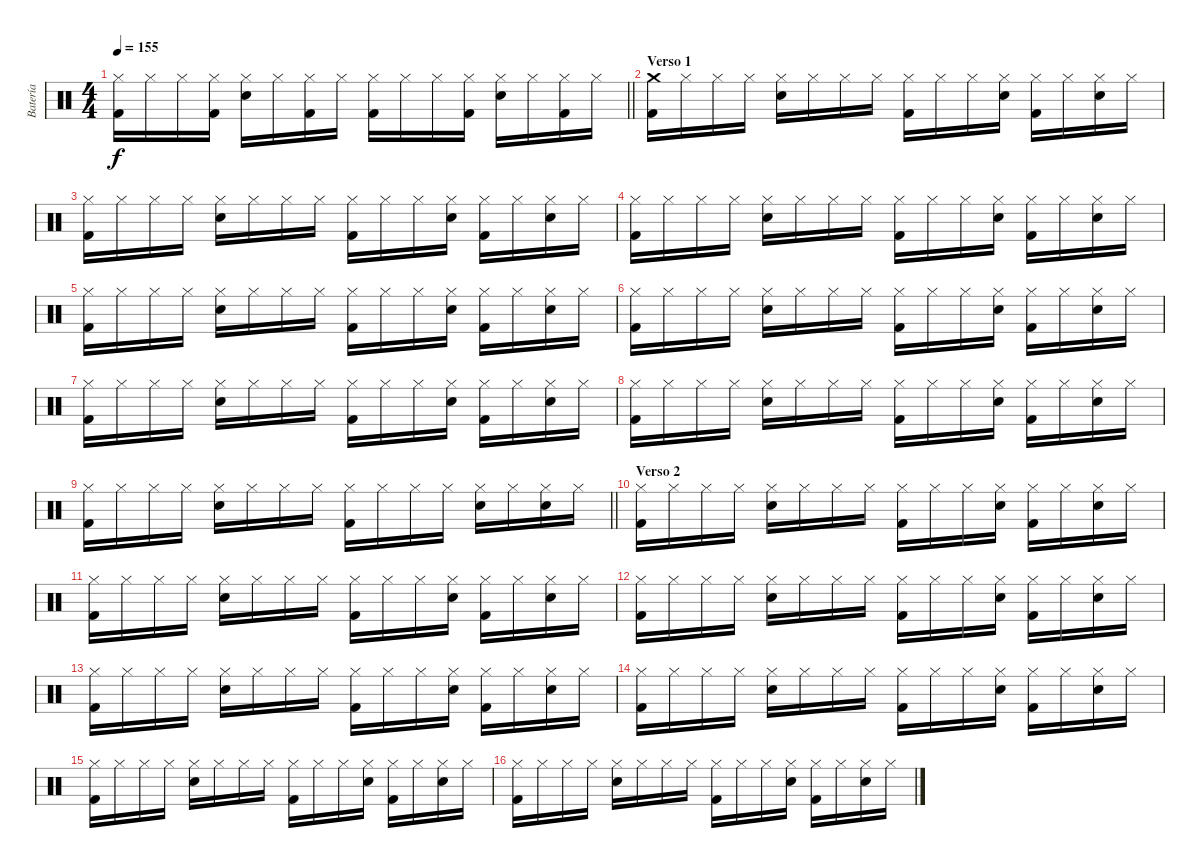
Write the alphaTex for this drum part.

\track ("Batería" "Batería") {instrument percussion}
\staff {score}
\articulation defaults
\ts (4 4)
\tempo 155
\clef neutral
\barLineRight lightlight
\ks c
("Hi-Hat (closed)" "Kick (hit) 2").16{dy f} "Hi-Hat (closed)".16 "Hi-Hat (closed)".16 ("Hi-Hat (closed)" "Kick (hit) 2").16 ("Hi-Hat (closed)" "Snare (hit) 2").16 "Hi-Hat (closed)".16 ("Hi-Hat (closed)" "Kick (hit) 2").16 "Hi-Hat (closed)".16 ("Hi-Hat (closed)" "Kick (hit) 2").16 "Hi-Hat (closed)".16 "Hi-Hat (closed)".16 ("Hi-Hat (closed)" "Kick (hit) 2").16 ("Hi-Hat (closed)" "Snare (hit) 2").16 "Hi-Hat (closed)".16 ("Hi-Hat (closed)" "Kick (hit) 2").16 "Hi-Hat (closed)".16 |
\section ("" "Verso 1")
("Crash medium (hit)" "Kick (hit) 2").16 "Hi-Hat (closed)".16 "Hi-Hat (closed)".16 "Hi-Hat (closed)".16 ("Hi-Hat (closed)" "Snare (hit) 2").16 "Hi-Hat (closed)".16 "Hi-Hat (closed)".16 "Hi-Hat (closed)".16 ("Hi-Hat (closed)" "Kick (hit) 2").16 "Hi-Hat (closed)".16 "Hi-Hat (closed)".16 ("Hi-Hat (closed)" "Snare (hit) 2").16 ("Hi-Hat (closed)" "Kick (hit) 2").16 "Hi-Hat (closed)".16 ("Hi-Hat (closed)" "Snare (hit) 2").16 "Hi-Hat (closed)".16 |
("Hi-Hat (closed)" "Kick (hit) 2").16 "Hi-Hat (closed)".16 "Hi-Hat (closed)".16 "Hi-Hat (closed)".16 ("Hi-Hat (closed)" "Snare (hit) 2").16 "Hi-Hat (closed)".16 "Hi-Hat (closed)".16 "Hi-Hat (closed)".16 ("Hi-Hat (closed)" "Kick (hit) 2").16 "Hi-Hat (closed)".16 "Hi-Hat (closed)".16 ("Hi-Hat (closed)" "Snare (hit) 2").16 ("Hi-Hat (closed)" "Kick (hit) 2").16 "Hi-Hat (closed)".16 ("Hi-Hat (closed)" "Snare (hit) 2").16 "Hi-Hat (closed)".16 |
("Hi-Hat (closed)" "Kick (hit) 2").16 "Hi-Hat (closed)".16 "Hi-Hat (closed)".16 "Hi-Hat (closed)".16 ("Hi-Hat (closed)" "Snare (hit) 2").16 "Hi-Hat (closed)".16 "Hi-Hat (closed)".16 "Hi-Hat (closed)".16 ("Hi-Hat (closed)" "Kick (hit) 2").16 "Hi-Hat (closed)".16 "Hi-Hat (closed)".16 ("Hi-Hat (closed)" "Snare (hit) 2").16 ("Hi-Hat (closed)" "Kick (hit) 2").16 "Hi-Hat (closed)".16 ("Hi-Hat (closed)" "Snare (hit) 2").16 "Hi-Hat (closed)".16 |
("Hi-Hat (closed)" "Kick (hit) 2").16 "Hi-Hat (closed)".16 "Hi-Hat (closed)".16 "Hi-Hat (closed)".16 ("Hi-Hat (closed)" "Snare (hit) 2").16 "Hi-Hat (closed)".16 "Hi-Hat (closed)".16 "Hi-Hat (closed)".16 ("Hi-Hat (closed)" "Kick (hit) 2").16 "Hi-Hat (closed)".16 "Hi-Hat (closed)".16 ("Hi-Hat (closed)" "Snare (hit) 2").16 ("Hi-Hat (closed)" "Kick (hit) 2").16 "Hi-Hat (closed)".16 ("Hi-Hat (closed)" "Snare (hit) 2").16 "Hi-Hat (closed)".16 |
("Hi-Hat (closed)" "Kick (hit) 2").16 "Hi-Hat (closed)".16 "Hi-Hat (closed)".16 "Hi-Hat (closed)".16 ("Hi-Hat (closed)" "Snare (hit) 2").16 "Hi-Hat (closed)".16 "Hi-Hat (closed)".16 "Hi-Hat (closed)".16 ("Hi-Hat (closed)" "Kick (hit) 2").16 "Hi-Hat (closed)".16 "Hi-Hat (closed)".16 ("Hi-Hat (closed)" "Snare (hit) 2").16 ("Hi-Hat (closed)" "Kick (hit) 2").16 "Hi-Hat (closed)".16 ("Hi-Hat (closed)" "Snare (hit) 2").16 "Hi-Hat (closed)".16 |
("Hi-Hat (closed)" "Kick (hit) 2").16 "Hi-Hat (closed)".16 "Hi-Hat (closed)".16 "Hi-Hat (closed)".16 ("Hi-Hat (closed)" "Snare (hit) 2").16 "Hi-Hat (closed)".16 "Hi-Hat (closed)".16 "Hi-Hat (closed)".16 ("Hi-Hat (closed)" "Kick (hit) 2").16 "Hi-Hat (closed)".16 "Hi-Hat (closed)".16 ("Hi-Hat (closed)" "Snare (hit) 2").16 ("Hi-Hat (closed)" "Kick (hit) 2").16 "Hi-Hat (closed)".16 ("Hi-Hat (closed)" "Snare (hit) 2").16 "Hi-Hat (closed)".16 |
("Hi-Hat (closed)" "Kick (hit) 2").16 "Hi-Hat (closed)".16 "Hi-Hat (closed)".16 "Hi-Hat (closed)".16 ("Hi-Hat (closed)" "Snare (hit) 2").16 "Hi-Hat (closed)".16 "Hi-Hat (closed)".16 "Hi-Hat (closed)".16 ("Hi-Hat (closed)" "Kick (hit) 2").16 "Hi-Hat (closed)".16 "Hi-Hat (closed)".16 ("Hi-Hat (closed)" "Snare (hit) 2").16 ("Hi-Hat (closed)" "Kick (hit) 2").16 "Hi-Hat (closed)".16 ("Hi-Hat (closed)" "Snare (hit) 2").16 "Hi-Hat (closed)".16 |
\barLineRight lightlight
("Hi-Hat (closed)" "Kick (hit) 2").16 "Hi-Hat (closed)".16 "Hi-Hat (closed)".16 "Hi-Hat (closed)".16 ("Hi-Hat (closed)" "Snare (hit) 2").16 "Hi-Hat (closed)".16 "Hi-Hat (closed)".16 "Hi-Hat (closed)".16 ("Hi-Hat (closed)" "Kick (hit) 2").16 "Hi-Hat (closed)".16 "Hi-Hat (closed)".16 "Hi-Hat (closed)".16 ("Hi-Hat (closed)" "Snare (hit) 2").16 "Hi-Hat (closed)".16 ("Hi-Hat (closed)" "Snare (hit) 2").16 "Hi-Hat (closed)".16 |
\section ("" "Verso 2")
("Hi-Hat (closed)" "Kick (hit) 2").16 "Hi-Hat (closed)".16 "Hi-Hat (closed)".16 "Hi-Hat (closed)".16 ("Hi-Hat (closed)" "Snare (hit) 2").16 "Hi-Hat (closed)".16 "Hi-Hat (closed)".16 "Hi-Hat (closed)".16 ("Hi-Hat (closed)" "Kick (hit) 2").16 "Hi-Hat (closed)".16 "Hi-Hat (closed)".16 ("Hi-Hat (closed)" "Snare (hit) 2").16 ("Hi-Hat (closed)" "Kick (hit) 2").16 "Hi-Hat (closed)".16 ("Hi-Hat (closed)" "Snare (hit) 2").16 "Hi-Hat (closed)".16 |
("Hi-Hat (closed)" "Kick (hit) 2").16 "Hi-Hat (closed)".16 "Hi-Hat (closed)".16 "Hi-Hat (closed)".16 ("Hi-Hat (closed)" "Snare (hit) 2").16 "Hi-Hat (closed)".16 "Hi-Hat (closed)".16 "Hi-Hat (closed)".16 ("Hi-Hat (closed)" "Kick (hit) 2").16 "Hi-Hat (closed)".16 "Hi-Hat (closed)".16 ("Hi-Hat (closed)" "Snare (hit) 2").16 ("Hi-Hat (closed)" "Kick (hit) 2").16 "Hi-Hat (closed)".16 ("Hi-Hat (closed)" "Snare (hit) 2").16 "Hi-Hat (closed)".16 |
("Hi-Hat (closed)" "Kick (hit) 2").16 "Hi-Hat (closed)".16 "Hi-Hat (closed)".16 "Hi-Hat (closed)".16 ("Hi-Hat (closed)" "Snare (hit) 2").16 "Hi-Hat (closed)".16 "Hi-Hat (closed)".16 "Hi-Hat (closed)".16 ("Hi-Hat (closed)" "Kick (hit) 2").16 "Hi-Hat (closed)".16 "Hi-Hat (closed)".16 ("Hi-Hat (closed)" "Snare (hit) 2").16 ("Hi-Hat (closed)" "Kick (hit) 2").16 "Hi-Hat (closed)".16 ("Hi-Hat (closed)" "Snare (hit) 2").16 "Hi-Hat (closed)".16 |
("Hi-Hat (closed)" "Kick (hit) 2").16 "Hi-Hat (closed)".16 "Hi-Hat (closed)".16 "Hi-Hat (closed)".16 ("Hi-Hat (closed)" "Snare (hit) 2").16 "Hi-Hat (closed)".16 "Hi-Hat (closed)".16 "Hi-Hat (closed)".16 ("Hi-Hat (closed)" "Kick (hit) 2").16 "Hi-Hat (closed)".16 "Hi-Hat (closed)".16 ("Hi-Hat (closed)" "Snare (hit) 2").16 ("Hi-Hat (closed)" "Kick (hit) 2").16 "Hi-Hat (closed)".16 ("Hi-Hat (closed)" "Snare (hit) 2").16 "Hi-Hat (closed)".16 |
("Hi-Hat (closed)" "Kick (hit) 2").16 "Hi-Hat (closed)".16 "Hi-Hat (closed)".16 "Hi-Hat (closed)".16 ("Hi-Hat (closed)" "Snare (hit) 2").16 "Hi-Hat (closed)".16 "Hi-Hat (closed)".16 "Hi-Hat (closed)".16 ("Hi-Hat (closed)" "Kick (hit) 2").16 "Hi-Hat (closed)".16 "Hi-Hat (closed)".16 ("Hi-Hat (closed)" "Snare (hit) 2").16 ("Hi-Hat (closed)" "Kick (hit) 2").16 "Hi-Hat (closed)".16 ("Hi-Hat (closed)" "Snare (hit) 2").16 "Hi-Hat (closed)".16 |
("Hi-Hat (closed)" "Kick (hit) 2").16 "Hi-Hat (closed)".16 "Hi-Hat (closed)".16 "Hi-Hat (closed)".16 ("Hi-Hat (closed)" "Snare (hit) 2").16 "Hi-Hat (closed)".16 "Hi-Hat (closed)".16 "Hi-Hat (closed)".16 ("Hi-Hat (closed)" "Kick (hit) 2").16 "Hi-Hat (closed)".16 "Hi-Hat (closed)".16 ("Hi-Hat (closed)" "Snare (hit) 2").16 ("Hi-Hat (closed)" "Kick (hit) 2").16 "Hi-Hat (closed)".16 ("Hi-Hat (closed)" "Snare (hit) 2").16 "Hi-Hat (closed)".16 |
("Hi-Hat (closed)" "Kick (hit) 2").16 "Hi-Hat (closed)".16 "Hi-Hat (closed)".16 "Hi-Hat (closed)".16 ("Hi-Hat (closed)" "Snare (hit) 2").16 "Hi-Hat (closed)".16 "Hi-Hat (closed)".16 "Hi-Hat (closed)".16 ("Hi-Hat (closed)" "Kick (hit) 2").16 "Hi-Hat (closed)".16 "Hi-Hat (closed)".16 ("Hi-Hat (closed)" "Snare (hit) 2").16 ("Hi-Hat (closed)" "Kick (hit) 2").16 "Hi-Hat (closed)".16 ("Hi-Hat (closed)" "Snare (hit) 2").16 "Hi-Hat (closed)".16
